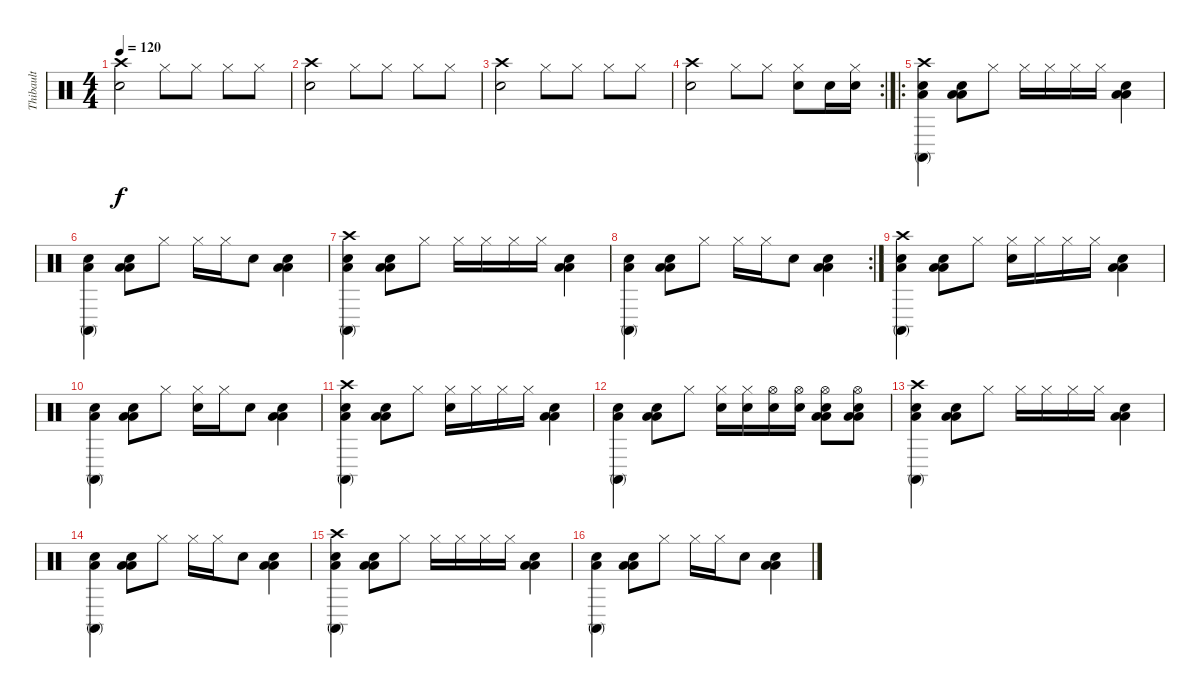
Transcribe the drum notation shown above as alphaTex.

\track ("Thibault" "Thibault") {instrument percussion}
\staff {score}
\articulation defaults
\ts (4 4)
\tempo 120
\clef neutral
\ks c
("Crash high (hit)" "Snare (hit) 2").2{dy f} "Hi-Hat (closed)".8 "Hi-Hat (closed)".8 "Hi-Hat (closed)".8 "Hi-Hat (closed)".8 |
("Crash high (hit)" "Snare (hit) 2").2 "Hi-Hat (closed)".8 "Hi-Hat (closed)".8 "Hi-Hat (closed)".8 "Hi-Hat (closed)".8 |
("Crash high (hit)" "Snare (hit) 2").2 "Hi-Hat (closed)".8 "Hi-Hat (closed)".8 "Hi-Hat (closed)".8 "Hi-Hat (closed)".8 |
\rc 2
("Crash high (hit)" "Snare (hit) 2").2 "Hi-Hat (closed)".8 "Hi-Hat (closed)".8 ("Hi-Hat (closed)" "Snare (hit) 2").8 "Snare (hit) 2".16 ("Hi-Hat (closed)" "Snare (hit) 2").16 |
\ro
("Crash high (hit)" "Conga high (mute)" "Low Floor Tom (hit)" "Snare (hit) 2").4 ("Low Tom (hit)" "Low Floor Tom (hit)" "Snare (hit) 2").8 "Hi-Hat (closed)".8 "Hi-Hat (closed)".16 "Hi-Hat (closed)".16 "Hi-Hat (closed)".16 "Hi-Hat (closed)".16 ("Low Tom (hit)" "Low Floor Tom (hit)" "Snare (hit) 2").4 |
("Conga high (mute)" "Low Floor Tom (hit)" "Snare (hit) 2").4 ("Low Tom (hit)" "Low Floor Tom (hit)" "Snare (hit) 2").8 "Hi-Hat (closed)".8 "Hi-Hat (closed)".16 "Hi-Hat (closed)".16 "Snare (hit) 2".8 ("Low Tom (hit)" "Low Floor Tom (hit)" "Snare (hit) 2").4 |
("Crash high (hit)" "Conga high (mute)" "Low Floor Tom (hit)" "Snare (hit) 2").4 ("Low Tom (hit)" "Low Floor Tom (hit)" "Snare (hit) 2").8 "Hi-Hat (closed)".8 "Hi-Hat (closed)".16 "Hi-Hat (closed)".16 "Hi-Hat (closed)".16 "Hi-Hat (closed)".16 ("Low Tom (hit)" "Low Floor Tom (hit)" "Snare (hit) 2").4 |
\rc 2
("Conga high (mute)" "Low Floor Tom (hit)" "Snare (hit) 2").4 ("Low Tom (hit)" "Low Floor Tom (hit)" "Snare (hit) 2").8 "Hi-Hat (closed)".8 "Hi-Hat (closed)".16 "Hi-Hat (closed)".16 "Snare (hit) 2".8 ("Low Tom (hit)" "Low Floor Tom (hit)" "Snare (hit) 2").4 |
("Crash high (hit)" "Conga high (mute)" "Low Floor Tom (hit)" "Snare (hit) 2").4 ("Low Tom (hit)" "Low Floor Tom (hit)" "Snare (hit) 2").8 "Hi-Hat (closed)".8 ("Snare (hit) 2" "Hi-Hat (closed)").16 "Hi-Hat (closed)".16 "Hi-Hat (closed)".16 "Hi-Hat (closed)".16 ("Low Tom (hit)" "Low Floor Tom (hit)" "Snare (hit) 2").4 |
("Conga high (mute)" "Low Floor Tom (hit)" "Snare (hit) 2").4 ("Low Tom (hit)" "Low Floor Tom (hit)" "Snare (hit) 2").8 "Hi-Hat (closed)".8 ("Snare (hit) 2" "Hi-Hat (closed)").16 "Hi-Hat (closed)".16 "Snare (hit) 2".8 ("Low Tom (hit)" "Low Floor Tom (hit)" "Snare (hit) 2").4 |
("Crash high (hit)" "Conga high (mute)" "Low Floor Tom (hit)" "Snare (hit) 2").4 ("Low Tom (hit)" "Low Floor Tom (hit)" "Snare (hit) 2").8 "Hi-Hat (closed)".8 ("Snare (hit) 2" "Hi-Hat (closed)").16 "Hi-Hat (closed)".16 "Hi-Hat (closed)".16 "Hi-Hat (closed)".16 ("Low Tom (hit)" "Low Floor Tom (hit)" "Snare (hit) 2").4 |
("Conga high (mute)" "Low Floor Tom (hit)" "Snare (hit) 2").4 ("Low Tom (hit)" "Low Floor Tom (hit)" "Snare (hit) 2").8 "Hi-Hat (closed)".8 ("Snare (hit) 2" "Hi-Hat (closed)").16 ("Snare (hit) 2" "Hi-Hat (closed)").16 ("Snare (hit) 2" "Hi-Hat (open)").16 ("Snare (hit) 2" "Hi-Hat (open)").16 ("Hi-Hat (open)" "Low Tom (hit)" "Low Floor Tom (hit)" "Snare (hit) 2").8 ("Hi-Hat (open)" "Low Tom (hit)" "Low Floor Tom (hit)" "Snare (hit) 2").8 |
("Crash high (hit)" "Conga high (mute)" "Low Floor Tom (hit)" "Snare (hit) 2").4 ("Low Tom (hit)" "Low Floor Tom (hit)" "Snare (hit) 2").8 "Hi-Hat (closed)".8 "Hi-Hat (closed)".16 "Hi-Hat (closed)".16 "Hi-Hat (closed)".16 "Hi-Hat (closed)".16 ("Low Tom (hit)" "Low Floor Tom (hit)" "Snare (hit) 2").4 |
("Conga high (mute)" "Low Floor Tom (hit)" "Snare (hit) 2").4 ("Low Tom (hit)" "Low Floor Tom (hit)" "Snare (hit) 2").8 "Hi-Hat (closed)".8 "Hi-Hat (closed)".16 "Hi-Hat (closed)".16 "Snare (hit) 2".8 ("Low Tom (hit)" "Low Floor Tom (hit)" "Snare (hit) 2").4 |
("Crash high (hit)" "Conga high (mute)" "Low Floor Tom (hit)" "Snare (hit) 2").4 ("Low Tom (hit)" "Low Floor Tom (hit)" "Snare (hit) 2").8 "Hi-Hat (closed)".8 "Hi-Hat (closed)".16 "Hi-Hat (closed)".16 "Hi-Hat (closed)".16 "Hi-Hat (closed)".16 ("Low Tom (hit)" "Low Floor Tom (hit)" "Snare (hit) 2").4 |
("Conga high (mute)" "Low Floor Tom (hit)" "Snare (hit) 2").4 ("Low Tom (hit)" "Low Floor Tom (hit)" "Snare (hit) 2").8 "Hi-Hat (closed)".8 "Hi-Hat (closed)".16 "Hi-Hat (closed)".16 "Snare (hit) 2".8 ("Low Tom (hit)" "Low Floor Tom (hit)" "Snare (hit) 2").4
